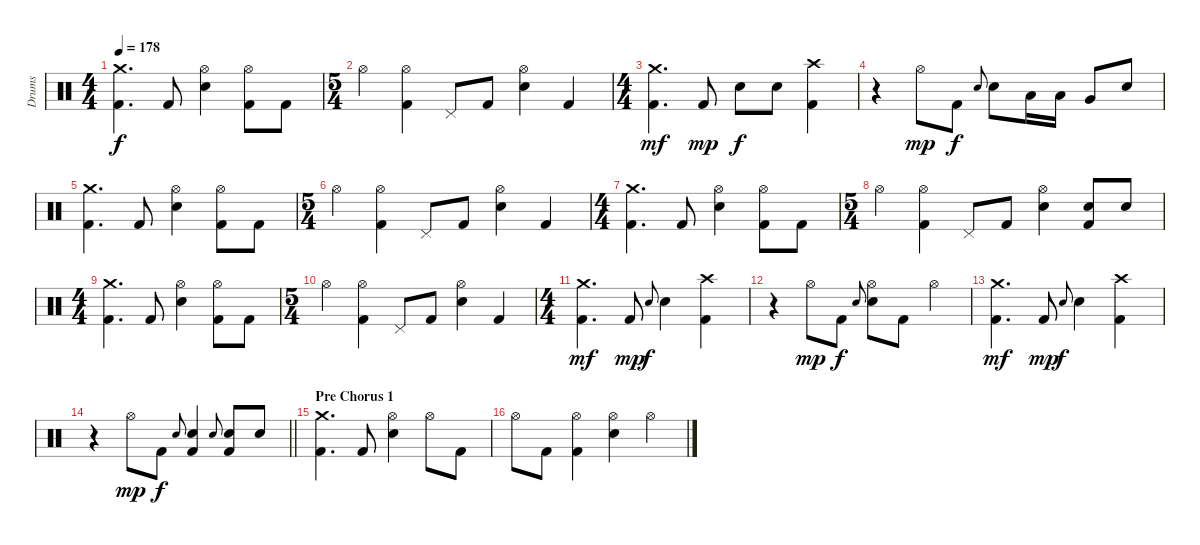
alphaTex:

\track ("Drums" "Drums") {instrument percussion}
\staff {score}
\articulation defaults
\ts (4 4)
\tempo 178
\clef neutral
\ks c
("Crash medium (hit)" "Kick (hit) 2").4{d dy f} "Kick (hit) 2".8 ("Hi-Hat (open)" "Electric Snare (hit)").4 ("Hi-Hat (open)" "Kick (hit) 2").8 "Kick (hit) 2".8 |
\ts (5 4)
"Hi-Hat (open)".4 ("Hi-Hat (open)" "Kick (hit) 2").4 "Pedal Hi-Hat (hit)".8 "Kick (hit) 2".8 ("Hi-Hat (open)" "Electric Snare (hit)").4 "Kick (hit) 2".4 |
\ts (4 4)
("Crash medium (hit)" "Kick (hit) 2").4{d dy mf} "Kick (hit) 2".8{dy mp} "Electric Snare (hit)".8{dy f} "Electric Snare (hit)".8 ("Crash high (hit)" "Kick (hit) 2").4 |
r.4 "Hi-Hat (open)".8{dy mp} "Kick (hit) 2".8{dy f} "Electric Snare (hit)".8{gr onbeat} "Electric Snare (hit)".8 "Low Tom (hit)".16 "Low Tom (hit)".16 "Very Low Tom (hit)".8 "Electric Snare (hit)".8 |
("Crash medium (hit)" "Kick (hit) 2").4{d} "Kick (hit) 2".8 ("Hi-Hat (open)" "Electric Snare (hit)").4 ("Hi-Hat (open)" "Kick (hit) 2").8 "Kick (hit) 2".8 |
\ts (5 4)
"Hi-Hat (open)".4 ("Hi-Hat (open)" "Kick (hit) 2").4 "Pedal Hi-Hat (hit)".8 "Kick (hit) 2".8 ("Hi-Hat (open)" "Electric Snare (hit)").4 "Kick (hit) 2".4 |
\ts (4 4)
("Crash medium (hit)" "Kick (hit) 2").4{d} "Kick (hit) 2".8 ("Hi-Hat (open)" "Electric Snare (hit)").4 ("Hi-Hat (open)" "Kick (hit) 2").8 "Kick (hit) 2".8 |
\ts (5 4)
"Hi-Hat (open)".4 ("Hi-Hat (open)" "Kick (hit) 2").4 "Pedal Hi-Hat (hit)".8 "Kick (hit) 2".8 ("Hi-Hat (open)" "Electric Snare (hit)").4 ("Electric Snare (hit)" "Kick (hit) 2").8 "Electric Snare (hit)".8 |
\ts (4 4)
("Crash medium (hit)" "Kick (hit) 2").4{d} "Kick (hit) 2".8 ("Hi-Hat (open)" "Electric Snare (hit)").4 ("Hi-Hat (open)" "Kick (hit) 2").8 "Kick (hit) 2".8 |
\ts (5 4)
"Hi-Hat (open)".4 ("Hi-Hat (open)" "Kick (hit) 2").4 "Pedal Hi-Hat (hit)".8 "Kick (hit) 2".8 ("Hi-Hat (open)" "Electric Snare (hit)").4 "Kick (hit) 2".4 |
\ts (4 4)
("Crash medium (hit)" "Kick (hit) 2").4{d dy mf} "Kick (hit) 2".8{dy mp} "Electric Snare (hit)".8{gr onbeat dy f} "Electric Snare (hit)".4 ("Crash high (hit)" "Kick (hit) 2").4 |
r.4 "Hi-Hat (open)".8{dy mp} "Kick (hit) 2".8{dy f} "Electric Snare (hit)".8{gr onbeat} ("Hi-Hat (open)" "Electric Snare (hit)").8 "Kick (hit) 2".8 "Hi-Hat (open)".4 |
("Crash medium (hit)" "Kick (hit) 2").4{d dy mf} "Kick (hit) 2".8{dy mp} "Electric Snare (hit)".8{gr onbeat dy f} "Electric Snare (hit)".4 ("Crash high (hit)" "Kick (hit) 2").4 |
\barLineRight lightlight
r.4 "Hi-Hat (open)".8{dy mp} "Kick (hit) 2".8{dy f} "Electric Snare (hit)".8{gr onbeat} ("Electric Snare (hit)" "Kick (hit) 2").4 "Electric Snare (hit)".8{gr onbeat} ("Electric Snare (hit)" "Kick (hit) 2").8 "Electric Snare (hit)".8 |
\section ("" "Pre Chorus 1")
("Crash medium (hit)" "Kick (hit) 2").4{d} "Kick (hit) 2".8 ("Hi-Hat (open)" "Electric Snare (hit)").4 "Hi-Hat (open)".8 "Kick (hit) 2".8 |
"Hi-Hat (open)".8 "Kick (hit) 2".8 ("Hi-Hat (open)" "Kick (hit) 2").4 ("Hi-Hat (open)" "Electric Snare (hit)").4 "Hi-Hat (open)".4
